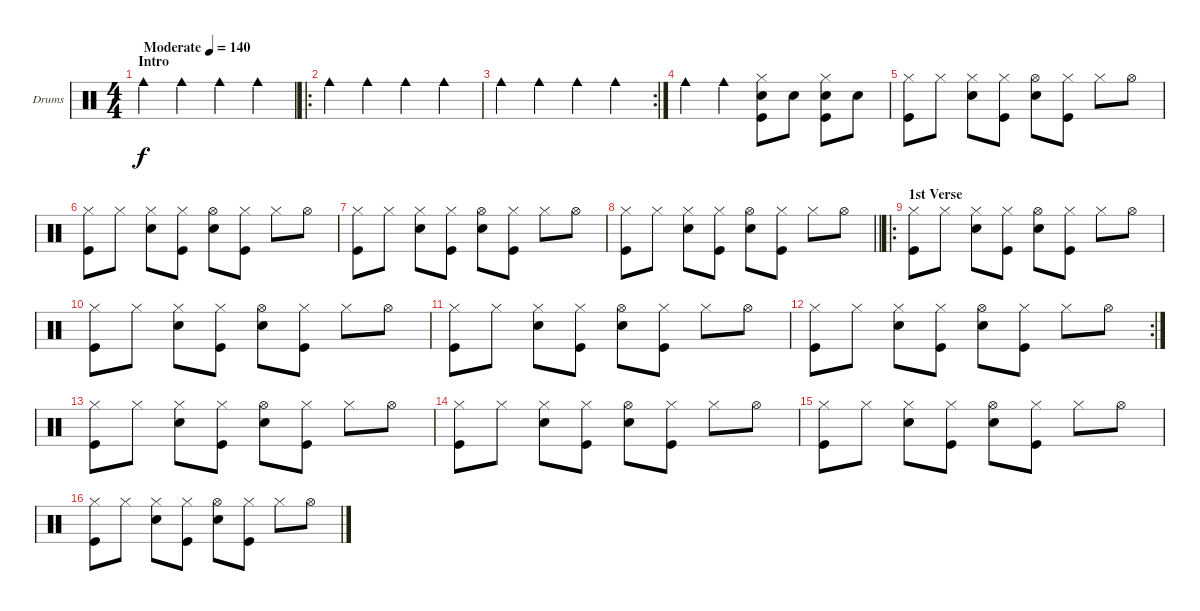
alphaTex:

\bracketExtendMode groupsimilarinstruments
\firstSystemTrackNameOrientation horizontal
\otherSystemsTrackNameOrientation horizontal
\track ("Drumkit" "Drums") {instrument percussion}
\staff {score}
\articulation defaults
\ts (4 4)
\beaming (8 2 2 2 2)
\section ("" "Intro")
\tempo (140 "Moderate")
\clef neutral
\ks c "Cowbell medium (hit)".4{dy f} "Cowbell medium (hit)".4 "Cowbell medium (hit)".4 "Cowbell medium (hit)".4
|
\ro "Cowbell medium (hit)".4 "Cowbell medium (hit)".4 "Cowbell medium (hit)".4 "Cowbell medium (hit)".4
|
\rc 2 "Cowbell medium (hit)".4 "Cowbell medium (hit)".4 "Cowbell medium (hit)".4 "Cowbell medium (hit)".4
|
"Cowbell medium (hit)".4 "Cowbell medium (hit)".4 ("Hi-Hat (closed)" "Snare (hit) 2" "Kick (hit)").8 "Snare (hit) 2".8 ("Hi-Hat (closed)" "Snare (hit) 2" "Kick (hit)").8 "Snare (hit) 2".8 |
("Hi-Hat (closed)" "Kick (hit)").8 "Hi-Hat (closed)".8 ("Hi-Hat (closed)" "Snare (hit) 2").8 ("Hi-Hat (closed)" "Kick (hit)").8 ("Hi-Hat (open)" "Snare (hit) 2").8 ("Hi-Hat (closed)" "Kick (hit)").8 "Hi-Hat (closed)".8 "Hi-Hat (open)".8 |
("Hi-Hat (closed)" "Kick (hit)").8 "Hi-Hat (closed)".8 ("Hi-Hat (closed)" "Snare (hit) 2").8 ("Hi-Hat (closed)" "Kick (hit)").8 ("Hi-Hat (open)" "Snare (hit) 2").8 ("Hi-Hat (closed)" "Kick (hit)").8 "Hi-Hat (closed)".8 "Hi-Hat (open)".8 |
("Hi-Hat (closed)" "Kick (hit)").8 "Hi-Hat (closed)".8 ("Hi-Hat (closed)" "Snare (hit) 2").8 ("Hi-Hat (closed)" "Kick (hit)").8 ("Hi-Hat (open)" "Snare (hit) 2").8 ("Hi-Hat (closed)" "Kick (hit)").8 "Hi-Hat (closed)".8 "Hi-Hat (open)".8 |
\barLineRight lightlight
("Hi-Hat (closed)" "Kick (hit)").8 "Hi-Hat (closed)".8 ("Hi-Hat (closed)" "Snare (hit) 2").8 ("Hi-Hat (closed)" "Kick (hit)").8 ("Hi-Hat (open)" "Snare (hit) 2").8 ("Hi-Hat (closed)" "Kick (hit)").8 "Hi-Hat (closed)".8 "Hi-Hat (open)".8 |
\ro
\section ("" "1st Verse")
("Hi-Hat (closed)" "Kick (hit)").8 "Hi-Hat (closed)".8 ("Hi-Hat (closed)" "Snare (hit) 2").8 ("Hi-Hat (closed)" "Kick (hit)").8 ("Hi-Hat (open)" "Snare (hit) 2").8 ("Hi-Hat (closed)" "Kick (hit)").8 "Hi-Hat (closed)".8 "Hi-Hat (open)".8 |
("Hi-Hat (closed)" "Kick (hit)").8 "Hi-Hat (closed)".8 ("Hi-Hat (closed)" "Snare (hit) 2").8 ("Hi-Hat (closed)" "Kick (hit)").8 ("Hi-Hat (open)" "Snare (hit) 2").8 ("Hi-Hat (closed)" "Kick (hit)").8 "Hi-Hat (closed)".8 "Hi-Hat (open)".8 |
("Hi-Hat (closed)" "Kick (hit)").8 "Hi-Hat (closed)".8 ("Hi-Hat (closed)" "Snare (hit) 2").8 ("Hi-Hat (closed)" "Kick (hit)").8 ("Hi-Hat (open)" "Snare (hit) 2").8 ("Hi-Hat (closed)" "Kick (hit)").8 "Hi-Hat (closed)".8 "Hi-Hat (open)".8 |
\rc 2
("Hi-Hat (closed)" "Kick (hit)").8 "Hi-Hat (closed)".8 ("Hi-Hat (closed)" "Snare (hit) 2").8 ("Hi-Hat (closed)" "Kick (hit)").8 ("Hi-Hat (open)" "Snare (hit) 2").8 ("Hi-Hat (closed)" "Kick (hit)").8 "Hi-Hat (closed)".8 "Hi-Hat (open)".8 |
("Hi-Hat (closed)" "Kick (hit)").8 "Hi-Hat (closed)".8 ("Hi-Hat (closed)" "Snare (hit) 2").8 ("Hi-Hat (closed)" "Kick (hit)").8 ("Hi-Hat (open)" "Snare (hit) 2").8 ("Hi-Hat (closed)" "Kick (hit)").8 "Hi-Hat (closed)".8 "Hi-Hat (open)".8 |
("Hi-Hat (closed)" "Kick (hit)").8 "Hi-Hat (closed)".8 ("Hi-Hat (closed)" "Snare (hit) 2").8 ("Hi-Hat (closed)" "Kick (hit)").8 ("Hi-Hat (open)" "Snare (hit) 2").8 ("Hi-Hat (closed)" "Kick (hit)").8 "Hi-Hat (closed)".8 "Hi-Hat (open)".8 |
("Hi-Hat (closed)" "Kick (hit)").8 "Hi-Hat (closed)".8 ("Hi-Hat (closed)" "Snare (hit) 2").8 ("Hi-Hat (closed)" "Kick (hit)").8 ("Hi-Hat (open)" "Snare (hit) 2").8 ("Hi-Hat (closed)" "Kick (hit)").8 "Hi-Hat (closed)".8 "Hi-Hat (open)".8 |
("Hi-Hat (closed)" "Kick (hit)").8 "Hi-Hat (closed)".8 ("Hi-Hat (closed)" "Snare (hit) 2").8 ("Hi-Hat (closed)" "Kick (hit)").8 ("Hi-Hat (open)" "Snare (hit) 2").8 ("Hi-Hat (closed)" "Kick (hit)").8 "Hi-Hat (closed)".8 "Hi-Hat (open)".8
